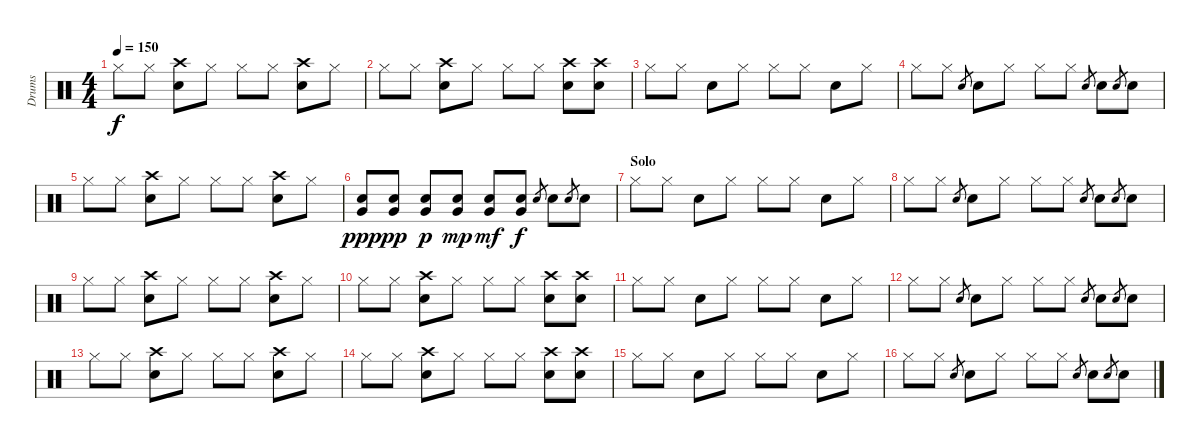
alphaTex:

\track ("Drums" "Drums") {instrument percussion}
\staff {score}
\articulation defaults
\ts (4 4)
\tempo 150
\clef neutral
\ks c "Hi-Hat (closed)".8{dy f} "Hi-Hat (closed)".8
("Crash high (hit)" "Electric Snare (hit)").8 "Hi-Hat (closed)".8 "Hi-Hat (closed)".8 "Hi-Hat (closed)".8 ("Crash high (hit)" "Electric Snare (hit)").8 "Hi-Hat (closed)".8 |
"Hi-Hat (closed)".8 "Hi-Hat (closed)".8 ("Crash high (hit)" "Electric Snare (hit)").8 "Hi-Hat (closed)".8 "Hi-Hat (closed)".8 "Hi-Hat (closed)".8 ("Crash high (hit)" "Electric Snare (hit)").8 ("Crash high (hit)" "Electric Snare (hit)").8 |
"Hi-Hat (closed)".8 "Hi-Hat (closed)".8 "Electric Snare (hit)".8 "Hi-Hat (closed)".8 "Hi-Hat (closed)".8 "Hi-Hat (closed)".8 "Electric Snare (hit)".8 "Hi-Hat (closed)".8 |
"Hi-Hat (closed)".8 "Hi-Hat (closed)".8 "Electric Snare (hit)".8{gr} "Electric Snare (hit)".8 "Hi-Hat (closed)".8 "Hi-Hat (closed)".8 "Hi-Hat (closed)".8 "Electric Snare (hit)".8{gr} "Electric Snare (hit)".8 "Electric Snare (hit)".8{gr} "Electric Snare (hit)".8 |
"Hi-Hat (closed)".8 "Hi-Hat (closed)".8 ("Crash high (hit)" "Electric Snare (hit)").8 "Hi-Hat (closed)".8 "Hi-Hat (closed)".8 "Hi-Hat (closed)".8 ("Crash high (hit)" "Electric Snare (hit)").8 "Hi-Hat (closed)".8 |
("Very Low Tom (hit)" "Electric Snare (hit)").8{dy ppp} ("Very Low Tom (hit)" "Electric Snare (hit)").8{dy pp} ("Very Low Tom (hit)" "Electric Snare (hit)").8{dy p} ("Very Low Tom (hit)" "Electric Snare (hit)").8{dy mp} ("Very Low Tom (hit)" "Electric Snare (hit)").8{dy mf} ("Very Low Tom (hit)" "Electric Snare (hit)").8{dy f} "Electric Snare (hit)".8{gr} "Electric Snare (hit)".8 "Electric Snare (hit)".8{gr} "Electric Snare (hit)".8 |
\section ("" "Solo")
"Hi-Hat (closed)".8 "Hi-Hat (closed)".8 "Electric Snare (hit)".8 "Hi-Hat (closed)".8 "Hi-Hat (closed)".8 "Hi-Hat (closed)".8 "Electric Snare (hit)".8 "Hi-Hat (closed)".8 |
"Hi-Hat (closed)".8 "Hi-Hat (closed)".8 "Electric Snare (hit)".8{gr} "Electric Snare (hit)".8 "Hi-Hat (closed)".8 "Hi-Hat (closed)".8 "Hi-Hat (closed)".8 "Electric Snare (hit)".8{gr} "Electric Snare (hit)".8 "Electric Snare (hit)".8{gr} "Electric Snare (hit)".8 |
"Hi-Hat (closed)".8 "Hi-Hat (closed)".8 ("Crash high (hit)" "Electric Snare (hit)").8 "Hi-Hat (closed)".8 "Hi-Hat (closed)".8 "Hi-Hat (closed)".8 ("Crash high (hit)" "Electric Snare (hit)").8 "Hi-Hat (closed)".8 |
"Hi-Hat (closed)".8 "Hi-Hat (closed)".8 ("Crash high (hit)" "Electric Snare (hit)").8 "Hi-Hat (closed)".8 "Hi-Hat (closed)".8 "Hi-Hat (closed)".8 ("Crash high (hit)" "Electric Snare (hit)").8 ("Crash high (hit)" "Electric Snare (hit)").8 |
"Hi-Hat (closed)".8 "Hi-Hat (closed)".8 "Electric Snare (hit)".8 "Hi-Hat (closed)".8 "Hi-Hat (closed)".8 "Hi-Hat (closed)".8 "Electric Snare (hit)".8 "Hi-Hat (closed)".8 |
"Hi-Hat (closed)".8 "Hi-Hat (closed)".8 "Electric Snare (hit)".8{gr} "Electric Snare (hit)".8 "Hi-Hat (closed)".8 "Hi-Hat (closed)".8 "Hi-Hat (closed)".8 "Electric Snare (hit)".8{gr} "Electric Snare (hit)".8 "Electric Snare (hit)".8{gr} "Electric Snare (hit)".8 |
"Hi-Hat (closed)".8 "Hi-Hat (closed)".8 ("Crash high (hit)" "Electric Snare (hit)").8 "Hi-Hat (closed)".8 "Hi-Hat (closed)".8 "Hi-Hat (closed)".8 ("Crash high (hit)" "Electric Snare (hit)").8 "Hi-Hat (closed)".8 |
"Hi-Hat (closed)".8 "Hi-Hat (closed)".8 ("Crash high (hit)" "Electric Snare (hit)").8 "Hi-Hat (closed)".8 "Hi-Hat (closed)".8 "Hi-Hat (closed)".8 ("Crash high (hit)" "Electric Snare (hit)").8 ("Crash high (hit)" "Electric Snare (hit)").8 |
"Hi-Hat (closed)".8 "Hi-Hat (closed)".8 "Electric Snare (hit)".8 "Hi-Hat (closed)".8 "Hi-Hat (closed)".8 "Hi-Hat (closed)".8 "Electric Snare (hit)".8 "Hi-Hat (closed)".8 |
"Hi-Hat (closed)".8 "Hi-Hat (closed)".8 "Electric Snare (hit)".8{gr} "Electric Snare (hit)".8 "Hi-Hat (closed)".8 "Hi-Hat (closed)".8 "Hi-Hat (closed)".8 "Electric Snare (hit)".8{gr} "Electric Snare (hit)".8 "Electric Snare (hit)".8{gr} "Electric Snare (hit)".8
